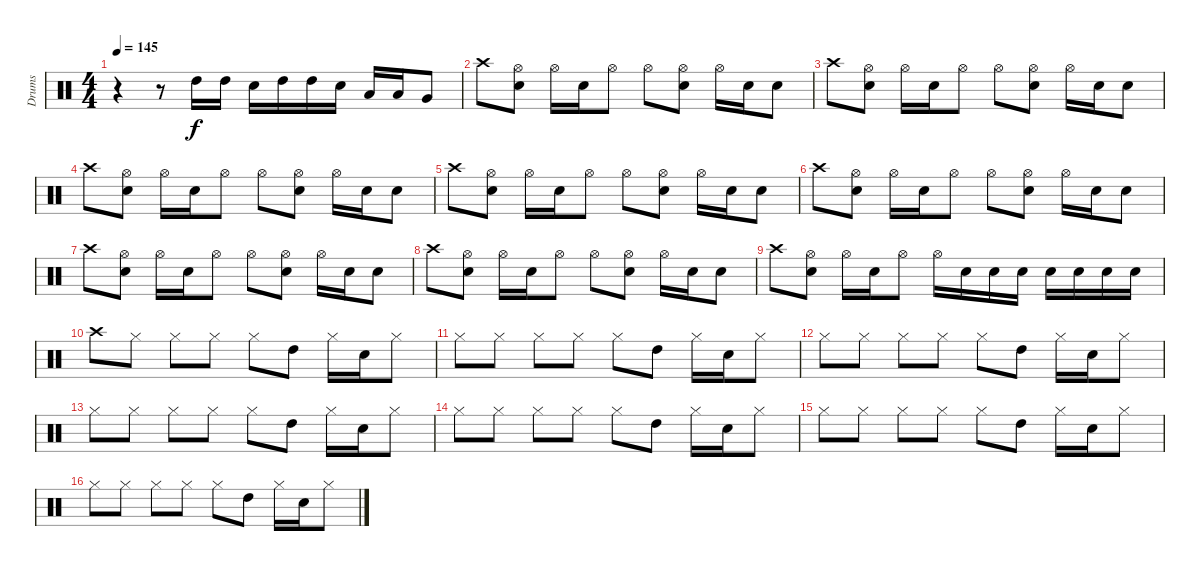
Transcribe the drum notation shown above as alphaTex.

\track ("Drums" "Drums") {instrument percussion}
\staff {score}
\articulation defaults
\ts (4 4)
\tempo 145
\clef neutral
\ks c
r.4{dy f} r.8 "High Tom (hit)".16 "High Tom (hit)".16 "Snare (hit) 2".16 "High Tom (hit)".16 "High Tom (hit)".16 "Snare (hit) 2".16 "Low Tom (hit)".16 "Low Tom (hit)".16 "Very Low Tom (hit)".8 |
"Crash high (hit)".8 ("Hi-Hat (open)" "Snare (hit) 2").8 "Hi-Hat (open)".16 "Snare (hit) 2".16 "Hi-Hat (open)".8 "Hi-Hat (open)".8 ("Hi-Hat (open)" "Snare (hit) 2").8 "Hi-Hat (open)".16 "Snare (hit) 2".16 "Snare (hit) 2".8 |
"Crash high (hit)".8 ("Hi-Hat (open)" "Snare (hit) 2").8 "Hi-Hat (open)".16 "Snare (hit) 2".16 "Hi-Hat (open)".8 "Hi-Hat (open)".8 ("Hi-Hat (open)" "Snare (hit) 2").8 "Hi-Hat (open)".16 "Snare (hit) 2".16 "Snare (hit) 2".8 |
"Crash high (hit)".8 ("Hi-Hat (open)" "Snare (hit) 2").8 "Hi-Hat (open)".16 "Snare (hit) 2".16 "Hi-Hat (open)".8 "Hi-Hat (open)".8 ("Hi-Hat (open)" "Snare (hit) 2").8 "Hi-Hat (open)".16 "Snare (hit) 2".16 "Snare (hit) 2".8 |
"Crash high (hit)".8 ("Hi-Hat (open)" "Snare (hit) 2").8 "Hi-Hat (open)".16 "Snare (hit) 2".16 "Hi-Hat (open)".8 "Hi-Hat (open)".8 ("Hi-Hat (open)" "Snare (hit) 2").8 "Hi-Hat (open)".16 "Snare (hit) 2".16 "Snare (hit) 2".8 |
"Crash high (hit)".8 ("Hi-Hat (open)" "Snare (hit) 2").8 "Hi-Hat (open)".16 "Snare (hit) 2".16 "Hi-Hat (open)".8 "Hi-Hat (open)".8 ("Hi-Hat (open)" "Snare (hit) 2").8 "Hi-Hat (open)".16 "Snare (hit) 2".16 "Snare (hit) 2".8 |
"Crash high (hit)".8 ("Hi-Hat (open)" "Snare (hit) 2").8 "Hi-Hat (open)".16 "Snare (hit) 2".16 "Hi-Hat (open)".8 "Hi-Hat (open)".8 ("Hi-Hat (open)" "Snare (hit) 2").8 "Hi-Hat (open)".16 "Snare (hit) 2".16 "Snare (hit) 2".8 |
"Crash high (hit)".8 ("Hi-Hat (open)" "Snare (hit) 2").8 "Hi-Hat (open)".16 "Snare (hit) 2".16 "Hi-Hat (open)".8 "Hi-Hat (open)".8 ("Hi-Hat (open)" "Snare (hit) 2").8 "Hi-Hat (open)".16 "Snare (hit) 2".16 "Snare (hit) 2".8 |
"Crash high (hit)".8 ("Hi-Hat (open)" "Snare (hit) 2").8 "Hi-Hat (open)".16 "Snare (hit) 2".16 "Hi-Hat (open)".8 "Hi-Hat (open)".16 "Snare (hit) 2".16 "Snare (hit) 2".16 "Snare (hit) 2".16 "Snare (hit) 2".16 "Snare (hit) 2".16 "Snare (hit) 2".16 "Snare (hit) 2".16 |
"Crash high (hit)".8 "Hi-Hat (closed)".8 "Hi-Hat (closed)".8 "Hi-Hat (closed)".8 "Hi-Hat (closed)".8 "High Tom (hit)".8 "Hi-Hat (closed)".16 "Snare (hit) 2".16 "Hi-Hat (closed)".8 |
"Hi-Hat (closed)".8 "Hi-Hat (closed)".8 "Hi-Hat (closed)".8 "Hi-Hat (closed)".8 "Hi-Hat (closed)".8 "High Tom (hit)".8 "Hi-Hat (closed)".16 "Snare (hit) 2".16 "Hi-Hat (closed)".8 |
"Hi-Hat (closed)".8 "Hi-Hat (closed)".8 "Hi-Hat (closed)".8 "Hi-Hat (closed)".8 "Hi-Hat (closed)".8 "High Tom (hit)".8 "Hi-Hat (closed)".16 "Snare (hit) 2".16 "Hi-Hat (closed)".8 |
"Hi-Hat (closed)".8 "Hi-Hat (closed)".8 "Hi-Hat (closed)".8 "Hi-Hat (closed)".8 "Hi-Hat (closed)".8 "High Tom (hit)".8 "Hi-Hat (closed)".16 "Snare (hit) 2".16 "Hi-Hat (closed)".8 |
"Hi-Hat (closed)".8 "Hi-Hat (closed)".8 "Hi-Hat (closed)".8 "Hi-Hat (closed)".8 "Hi-Hat (closed)".8 "High Tom (hit)".8 "Hi-Hat (closed)".16 "Snare (hit) 2".16 "Hi-Hat (closed)".8 |
"Hi-Hat (closed)".8 "Hi-Hat (closed)".8 "Hi-Hat (closed)".8 "Hi-Hat (closed)".8 "Hi-Hat (closed)".8 "High Tom (hit)".8 "Hi-Hat (closed)".16 "Snare (hit) 2".16 "Hi-Hat (closed)".8 |
"Hi-Hat (closed)".8 "Hi-Hat (closed)".8 "Hi-Hat (closed)".8 "Hi-Hat (closed)".8 "Hi-Hat (closed)".8 "High Tom (hit)".8 "Hi-Hat (closed)".16 "Snare (hit) 2".16 "Hi-Hat (closed)".8
